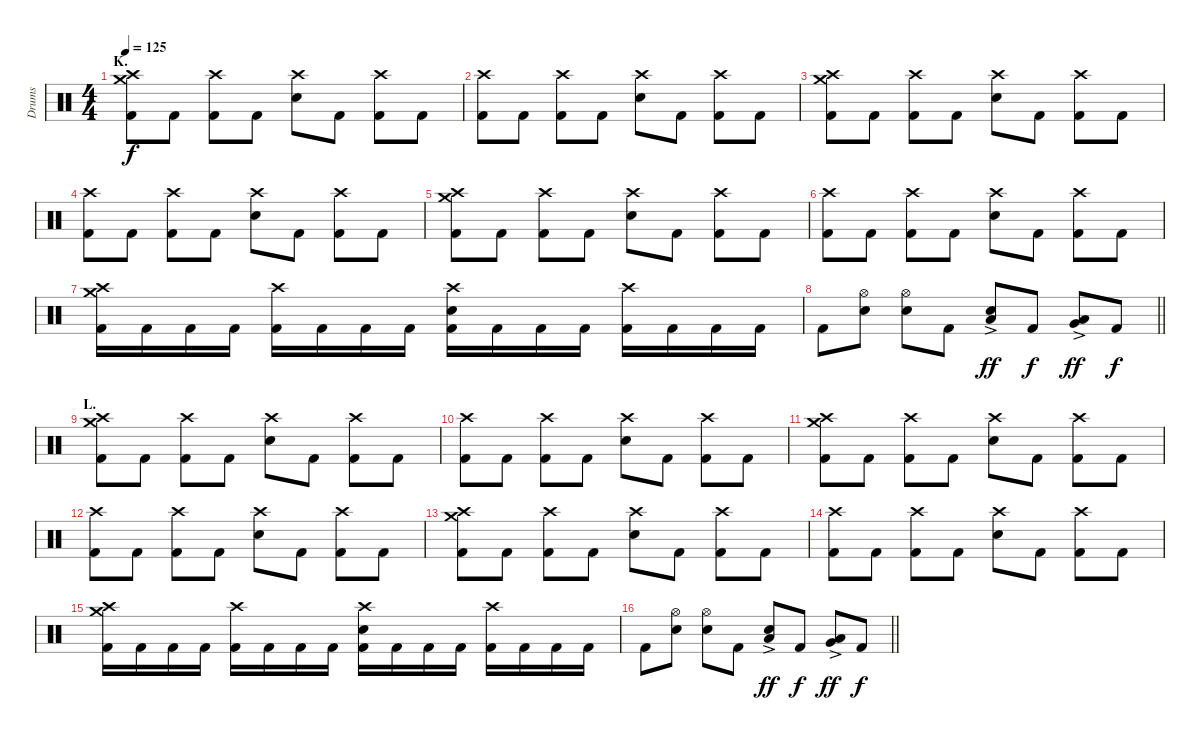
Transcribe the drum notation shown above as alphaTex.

\track ("Drums" "Drums") {instrument percussion}
\staff {score}
\articulation defaults
\ts (4 4)
\section ("" "K.")
\tempo 125
\clef neutral
\ks c
("Crash medium (hit)" "Crash high (hit)" "Kick (hit) 2").8{dy f} "Kick (hit) 2".8 ("Crash high (hit)" "Kick (hit) 2").8 "Kick (hit) 2".8 ("Crash high (hit)" "Electric Snare (hit)").8 "Kick (hit) 2".8 ("Crash high (hit)" "Kick (hit) 2").8 "Kick (hit) 2".8 |
("Crash high (hit)" "Kick (hit) 2").8 "Kick (hit) 2".8 ("Crash high (hit)" "Kick (hit) 2").8 "Kick (hit) 2".8 ("Crash high (hit)" "Electric Snare (hit)").8 "Kick (hit) 2".8 ("Crash high (hit)" "Kick (hit) 2").8 "Kick (hit) 2".8 |
("Crash medium (hit)" "Crash high (hit)" "Kick (hit) 2").8 "Kick (hit) 2".8 ("Crash high (hit)" "Kick (hit) 2").8 "Kick (hit) 2".8 ("Crash high (hit)" "Electric Snare (hit)").8 "Kick (hit) 2".8 ("Crash high (hit)" "Kick (hit) 2").8 "Kick (hit) 2".8 |
("Crash high (hit)" "Kick (hit) 2").8 "Kick (hit) 2".8 ("Crash high (hit)" "Kick (hit) 2").8 "Kick (hit) 2".8 ("Crash high (hit)" "Electric Snare (hit)").8 "Kick (hit) 2".8 ("Crash high (hit)" "Kick (hit) 2").8 "Kick (hit) 2".8 |
("Crash medium (hit)" "Crash high (hit)" "Kick (hit) 2").8 "Kick (hit) 2".8 ("Crash high (hit)" "Kick (hit) 2").8 "Kick (hit) 2".8 ("Crash high (hit)" "Electric Snare (hit)").8 "Kick (hit) 2".8 ("Crash high (hit)" "Kick (hit) 2").8 "Kick (hit) 2".8 |
("Crash high (hit)" "Kick (hit) 2").8 "Kick (hit) 2".8 ("Crash high (hit)" "Kick (hit) 2").8 "Kick (hit) 2".8 ("Crash high (hit)" "Electric Snare (hit)").8 "Kick (hit) 2".8 ("Crash high (hit)" "Kick (hit) 2").8 "Kick (hit) 2".8 |
("Crash medium (hit)" "Crash high (hit)" "Kick (hit) 2").16 "Kick (hit) 2".16 "Kick (hit) 2".16 "Kick (hit) 2".16 ("Crash high (hit)" "Kick (hit) 2").16 "Kick (hit) 2".16 "Kick (hit) 2".16 "Kick (hit) 2".16 ("Crash high (hit)" "Electric Snare (hit)" "Kick (hit) 2").16 "Kick (hit) 2".16 "Kick (hit) 2".16 "Kick (hit) 2".16 ("Crash high (hit)" "Kick (hit) 2").16 "Kick (hit) 2".16 "Kick (hit) 2".16 "Kick (hit) 2".16 |
\barLineRight lightlight "Kick (hit) 2".8
("Hi-Hat (open)" "Electric Snare (hit)").8 ("Hi-Hat (open)" "Electric Snare (hit)").8 "Kick (hit) 2".8 ("Electric Snare (hit)" "Low Floor Tom (hit)"{ac}).8{bu 120 dy ff} "Kick (hit) 2".8{dy f} ("Very Low Tom (hit)" "Low Floor Tom (hit)"{ac}).8{bu 120 dy ff} "Kick (hit) 2".8{dy f} |
\section ("" "L.")
("Crash medium (hit)" "Crash high (hit)" "Kick (hit) 2").8 "Kick (hit) 2".8 ("Crash high (hit)" "Kick (hit) 2").8 "Kick (hit) 2".8 ("Crash high (hit)" "Electric Snare (hit)").8 "Kick (hit) 2".8 ("Crash high (hit)" "Kick (hit) 2").8 "Kick (hit) 2".8 |
("Crash high (hit)" "Kick (hit) 2").8 "Kick (hit) 2".8 ("Crash high (hit)" "Kick (hit) 2").8 "Kick (hit) 2".8 ("Crash high (hit)" "Electric Snare (hit)").8 "Kick (hit) 2".8 ("Crash high (hit)" "Kick (hit) 2").8 "Kick (hit) 2".8 |
("Crash medium (hit)" "Crash high (hit)" "Kick (hit) 2").8 "Kick (hit) 2".8 ("Crash high (hit)" "Kick (hit) 2").8 "Kick (hit) 2".8 ("Crash high (hit)" "Electric Snare (hit)").8 "Kick (hit) 2".8 ("Crash high (hit)" "Kick (hit) 2").8 "Kick (hit) 2".8 |
("Crash high (hit)" "Kick (hit) 2").8 "Kick (hit) 2".8 ("Crash high (hit)" "Kick (hit) 2").8 "Kick (hit) 2".8 ("Crash high (hit)" "Electric Snare (hit)").8 "Kick (hit) 2".8 ("Crash high (hit)" "Kick (hit) 2").8 "Kick (hit) 2".8 |
("Crash medium (hit)" "Crash high (hit)" "Kick (hit) 2").8 "Kick (hit) 2".8 ("Crash high (hit)" "Kick (hit) 2").8 "Kick (hit) 2".8 ("Crash high (hit)" "Electric Snare (hit)").8 "Kick (hit) 2".8 ("Crash high (hit)" "Kick (hit) 2").8 "Kick (hit) 2".8 |
("Crash high (hit)" "Kick (hit) 2").8 "Kick (hit) 2".8 ("Crash high (hit)" "Kick (hit) 2").8 "Kick (hit) 2".8 ("Crash high (hit)" "Electric Snare (hit)").8 "Kick (hit) 2".8 ("Crash high (hit)" "Kick (hit) 2").8 "Kick (hit) 2".8 |
("Crash medium (hit)" "Crash high (hit)" "Kick (hit) 2").16 "Kick (hit) 2".16 "Kick (hit) 2".16 "Kick (hit) 2".16 ("Crash high (hit)" "Kick (hit) 2").16 "Kick (hit) 2".16 "Kick (hit) 2".16 "Kick (hit) 2".16 ("Crash high (hit)" "Electric Snare (hit)" "Kick (hit) 2").16 "Kick (hit) 2".16 "Kick (hit) 2".16 "Kick (hit) 2".16 ("Crash high (hit)" "Kick (hit) 2").16 "Kick (hit) 2".16 "Kick (hit) 2".16 "Kick (hit) 2".16 |
\barLineRight lightlight "Kick (hit) 2".8
("Hi-Hat (open)" "Electric Snare (hit)").8 ("Hi-Hat (open)" "Electric Snare (hit)").8 "Kick (hit) 2".8 ("Electric Snare (hit)" "Low Floor Tom (hit)"{ac}).8{bu 120 dy ff} "Kick (hit) 2".8{dy f} ("Very Low Tom (hit)" "Low Floor Tom (hit)"{ac}).8{bu 120 dy ff} "Kick (hit) 2".8{dy f}
